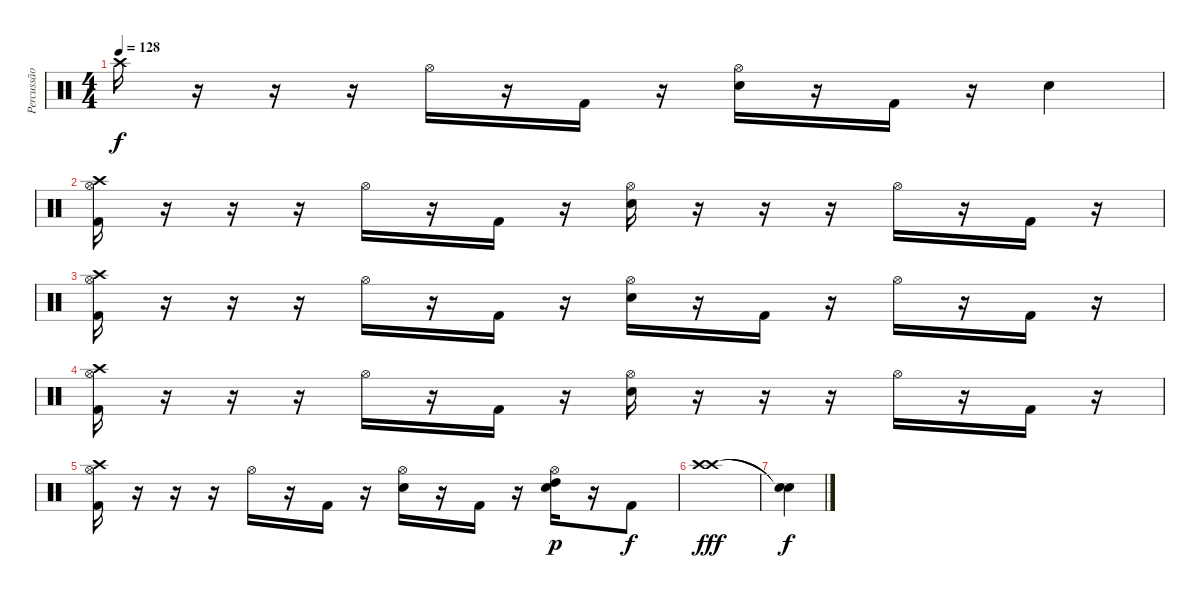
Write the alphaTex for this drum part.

\track ("Percussão" "Percussão") {instrument percussion}
\staff {score}
\articulation defaults
\ts (4 4)
\tempo 128
\clef neutral
\ks c "Crash high (hit)".16{dy f}
r.16 r.16 r.16 "Hi-Hat (open)".16 r.16 "Kick (hit) 2".16 r.16 ("Hi-Hat (open)" "Electric Snare (hit)").16 r.16 "Kick (hit) 2".16 r.16 "Electric Snare (hit)".4 |
("Crash high (hit)" "Hi-Hat (open)" "Kick (hit) 2").16 r.16 r.16 r.16 "Hi-Hat (open)".16 r.16 "Kick (hit) 2".16 r.16 ("Hi-Hat (open)" "Electric Snare (hit)").16 r.16 r.16 r.16 "Hi-Hat (open)".16 r.16 "Kick (hit) 2".16 r.16 |
("Crash high (hit)" "Hi-Hat (open)" "Kick (hit) 2").16 r.16 r.16 r.16 "Hi-Hat (open)".16 r.16 "Kick (hit) 2".16 r.16 ("Hi-Hat (open)" "Electric Snare (hit)").16 r.16 "Kick (hit) 2".16 r.16 "Hi-Hat (open)".16 r.16 "Kick (hit) 2".16 r.16 |
("Crash high (hit)" "Hi-Hat (open)" "Kick (hit) 2").16 r.16 r.16 r.16 "Hi-Hat (open)".16 r.16 "Kick (hit) 2".16 r.16 ("Hi-Hat (open)" "Electric Snare (hit)").16 r.16 r.16 r.16 "Hi-Hat (open)".16 r.16 "Kick (hit) 2".16 r.16 |
("Crash high (hit)" "Hi-Hat (open)" "Kick (hit) 2").16 r.16 r.16 r.16 "Hi-Hat (open)".16 r.16 "Kick (hit) 2".16 r.16 ("Hi-Hat (open)" "Electric Snare (hit)").16 r.16 "Kick (hit) 2".16 r.16 ("Hi-Hat (open)" "Electric Snare (hit)" "High Tom (hit)").16{dy p} r.16 "Kick (hit) 2".8{dy f} |
("Crash high (hit)" "Crash high (hit)").1{dy fff} |
("Snare (hit)"{t} "Snare (hit)"{t}).4{dy f}
